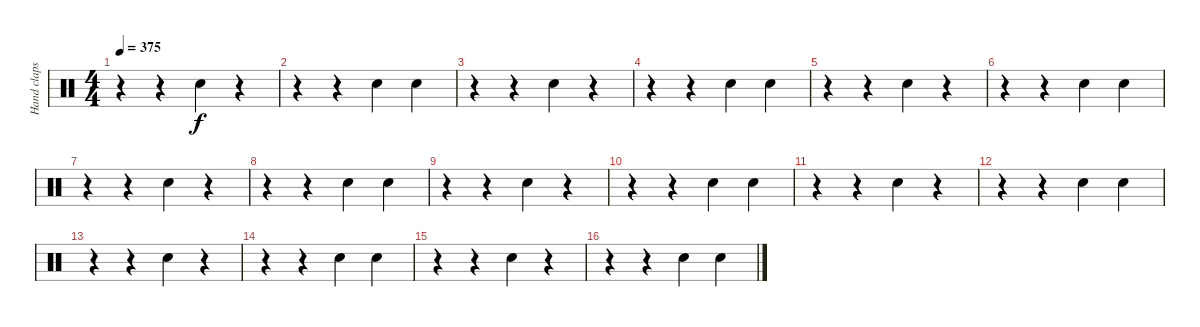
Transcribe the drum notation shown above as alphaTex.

\track ("Hand claps" "Hand claps") {instrument percussion}
\staff {score}
\articulation defaults
\ts (4 4)
\tempo 375
\clef neutral
\ks c
r.4{dy f} r.4 "Hand Clap (hit)".4 r.4 |
r.4 r.4 "Hand Clap (hit)".4 "Hand Clap (hit)".4 |
r.4 r.4 "Hand Clap (hit)".4 r.4 |
r.4 r.4 "Hand Clap (hit)".4 "Hand Clap (hit)".4 |
r.4 r.4 "Hand Clap (hit)".4 r.4 |
r.4 r.4 "Hand Clap (hit)".4 "Hand Clap (hit)".4 |
r.4 r.4 "Hand Clap (hit)".4 r.4 |
r.4 r.4 "Hand Clap (hit)".4 "Hand Clap (hit)".4 |
r.4 r.4 "Hand Clap (hit)".4 r.4 |
r.4 r.4 "Hand Clap (hit)".4 "Hand Clap (hit)".4 |
r.4 r.4 "Hand Clap (hit)".4 r.4 |
r.4 r.4 "Hand Clap (hit)".4 "Hand Clap (hit)".4 |
r.4 r.4 "Hand Clap (hit)".4 r.4 |
r.4 r.4 "Hand Clap (hit)".4 "Hand Clap (hit)".4 |
r.4 r.4 "Hand Clap (hit)".4 r.4 |
r.4 r.4 "Hand Clap (hit)".4 "Hand Clap (hit)".4
